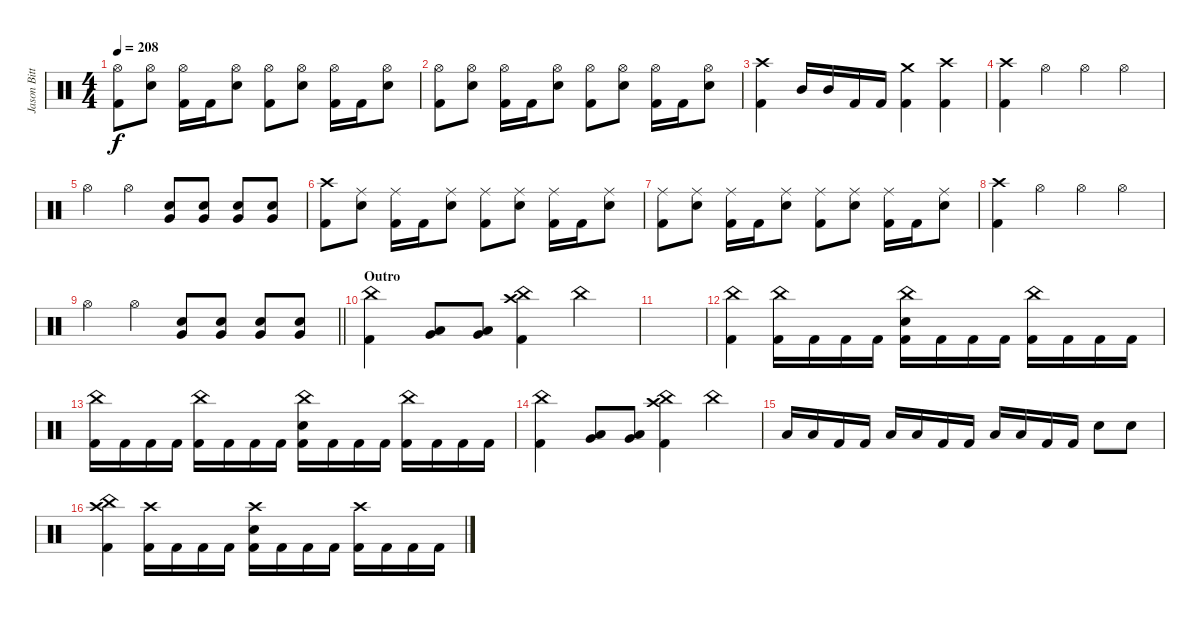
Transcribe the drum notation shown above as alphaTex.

\track ("Jason Bittner" "Jason Bitt") {instrument percussion}
\staff {score}
\articulation defaults
\ts (4 4)
\tempo 208
\clef neutral
\ks c
("Hi-Hat (open)" "Kick (hit) 2").8{dy f} ("Hi-Hat (open)" "Electric Snare (hit)").8 ("Hi-Hat (open)" "Kick (hit) 2").16 "Kick (hit) 2".16 ("Hi-Hat (open)" "Electric Snare (hit)").8 ("Hi-Hat (open)" "Kick (hit) 2").8 ("Hi-Hat (open)" "Electric Snare (hit)").8 ("Hi-Hat (open)" "Kick (hit) 2").16 "Kick (hit) 2".16 ("Hi-Hat (open)" "Electric Snare (hit)").8 |
("Hi-Hat (open)" "Kick (hit) 2").8 ("Hi-Hat (open)" "Electric Snare (hit)").8 ("Hi-Hat (open)" "Kick (hit) 2").16 "Kick (hit) 2".16 ("Hi-Hat (open)" "Electric Snare (hit)").8 ("Hi-Hat (open)" "Kick (hit) 2").8 ("Hi-Hat (open)" "Electric Snare (hit)").8 ("Hi-Hat (open)" "Kick (hit) 2").16 "Kick (hit) 2".16 ("Hi-Hat (open)" "Electric Snare (hit)").8 |
("Crash high (hit)" "Kick (hit) 2").4 "Mid Tom (hit)".16 "Mid Tom (hit)".16 "Kick (hit) 2".16 "Kick (hit) 2".16 ("Crash medium (hit)" "Kick (hit) 2").4 ("Crash high (hit)" "Kick (hit) 2").4 |
("Crash high (hit)" "Kick (hit) 2").4 "Hi-Hat (open)".4 "Hi-Hat (open)".4 "Hi-Hat (open)".4 |
"Hi-Hat (open)".4 "Hi-Hat (open)".4 ("Electric Snare (hit)" "Very Low Tom (hit)").8 ("Electric Snare (hit)" "Very Low Tom (hit)").8 ("Electric Snare (hit)" "Very Low Tom (hit)").8 ("Electric Snare (hit)" "Very Low Tom (hit)").8 |
("Crash high (hit)" "Kick (hit) 2").8 ("Ride (middle)" "Electric Snare (hit)").8 ("Ride (middle)" "Kick (hit) 2").16 "Kick (hit) 2".16 ("Ride (middle)" "Electric Snare (hit)").8 ("Ride (middle)" "Kick (hit) 2").8 ("Ride (middle)" "Electric Snare (hit)").8 ("Ride (middle)" "Kick (hit) 2").16 "Kick (hit) 2".16 ("Ride (middle)" "Electric Snare (hit)").8 |
("Ride (middle)" "Kick (hit) 2").8 ("Ride (middle)" "Electric Snare (hit)").8 ("Ride (middle)" "Kick (hit) 2").16 "Kick (hit) 2".16 ("Ride (middle)" "Electric Snare (hit)").8 ("Ride (middle)" "Kick (hit) 2").8 ("Ride (middle)" "Electric Snare (hit)").8 ("Ride (middle)" "Kick (hit) 2").16 "Kick (hit) 2".16 ("Ride (middle)" "Electric Snare (hit)").8 |
("Crash high (hit)" "Kick (hit) 2").4 "Hi-Hat (open)".4 "Hi-Hat (open)".4 "Hi-Hat (open)".4 |
\barLineRight lightlight "Hi-Hat (open)".4 "Hi-Hat (open)".4
("Electric Snare (hit)" "Very Low Tom (hit)").8 ("Electric Snare (hit)" "Very Low Tom (hit)").8 ("Electric Snare (hit)" "Very Low Tom (hit)").8 ("Electric Snare (hit)" "Very Low Tom (hit)").8 |
\section ("" "Outro")
("China (hit)" "Kick (hit) 2").4 ("Very Low Tom (hit)" "Low Floor Tom (hit)").8 ("Very Low Tom (hit)" "Low Floor Tom (hit)").8 ("China (hit)" "Crash high (hit)" "Kick (hit) 2").4 "China (hit)".4 |
|
("China (hit)" "Kick (hit) 2").4 ("China (hit)" "Kick (hit) 2").16 "Kick (hit) 2".16 "Kick (hit) 2".16 "Kick (hit) 2".16 ("China (hit)" "Electric Snare (hit)" "Kick (hit) 2").16 "Kick (hit) 2".16 "Kick (hit) 2".16 "Kick (hit) 2".16 ("China (hit)" "Kick (hit) 2").16 "Kick (hit) 2".16 "Kick (hit) 2".16 "Kick (hit) 2".16 |
("China (hit)" "Kick (hit) 2").16 "Kick (hit) 2".16 "Kick (hit) 2".16 "Kick (hit) 2".16 ("China (hit)" "Kick (hit) 2").16 "Kick (hit) 2".16 "Kick (hit) 2".16 "Kick (hit) 2".16 ("China (hit)" "Electric Snare (hit)" "Kick (hit) 2").16 "Kick (hit) 2".16 "Kick (hit) 2".16 "Kick (hit) 2".16 ("China (hit)" "Kick (hit) 2").16 "Kick (hit) 2".16 "Kick (hit) 2".16 "Kick (hit) 2".16 |
("China (hit)" "Kick (hit) 2").4 ("Very Low Tom (hit)" "Low Floor Tom (hit)").8 ("Very Low Tom (hit)" "Low Floor Tom (hit)").8 ("China (hit)" "Crash high (hit)" "Kick (hit) 2").4 "China (hit)".4 |
"Low Tom (hit)".16 "Low Tom (hit)".16 "Kick (hit) 2".16 "Kick (hit) 2".16 "Low Tom (hit)".16 "Low Tom (hit)".16 "Kick (hit) 2".16 "Kick (hit) 2".16 "Low Tom (hit)".16 "Low Tom (hit)".16 "Kick (hit) 2".16 "Kick (hit) 2".16 "Electric Snare (hit)".8 "Electric Snare (hit)".8 |
("China (hit)" "Crash high (hit)" "Kick (hit) 2").4 ("Crash high (hit)" "Kick (hit) 2").16 "Kick (hit) 2".16 "Kick (hit) 2".16 "Kick (hit) 2".16 ("Crash high (hit)" "Electric Snare (hit)" "Kick (hit) 2").16 "Kick (hit) 2".16 "Kick (hit) 2".16 "Kick (hit) 2".16 ("Crash high (hit)" "Kick (hit) 2").16 "Kick (hit) 2".16 "Kick (hit) 2".16 "Kick (hit) 2".16
